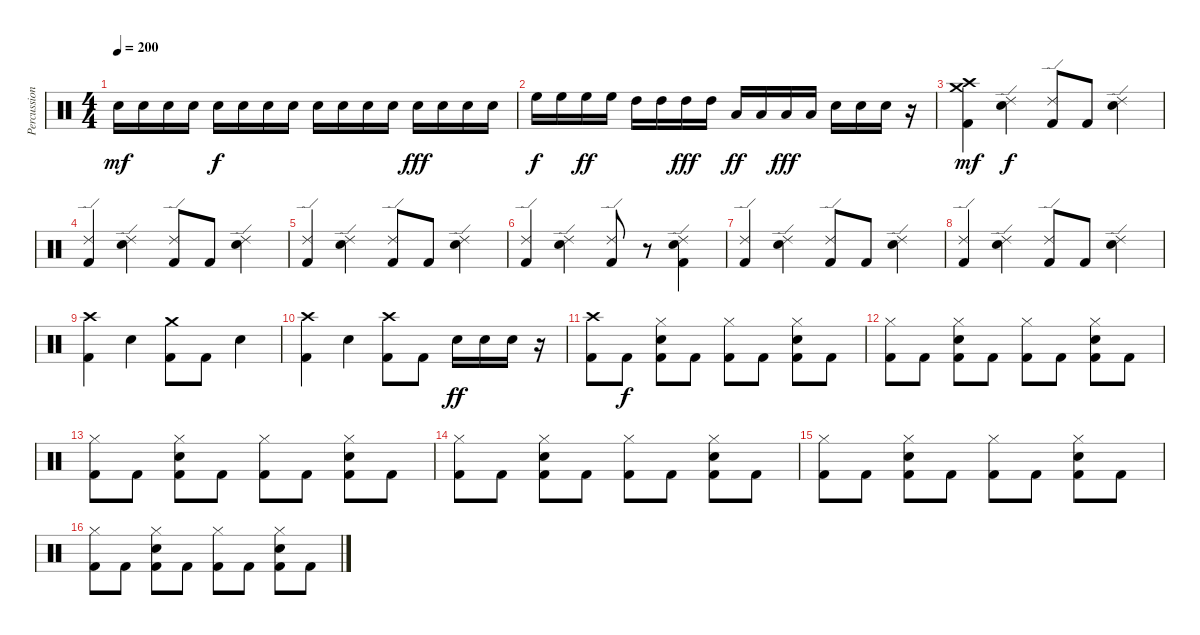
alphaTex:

\track ("Percussion" "Percussion") {instrument percussion}
\staff {score}
\articulation defaults
\ts (4 4)
\tempo 200
\clef neutral
\ks c "Snare (hit) 2".16{dy mf} "Snare (hit) 2".16 "Snare (hit) 2".16 "Snare (hit) 2".16 "Snare (hit) 2".16{dy f} "Snare (hit) 2".16 "Snare (hit) 2".16 "Snare (hit) 2".16 "Snare (hit) 2".16 "Snare (hit) 2".16 "Snare (hit) 2".16 "Snare (hit) 2".16 "Snare (hit) 2".16{dy fff} "Snare (hit) 2".16 "Snare (hit) 2".16 "Snare (hit) 2".16
|
"High Floor Tom (hit)".16{dy f} "High Floor Tom (hit)".16 "High Floor Tom (hit)".16{dy ff} "High Floor Tom (hit)".16 "High Tom (hit)".16 "High Tom (hit)".16 "High Tom (hit)".16{dy fff} "High Tom (hit)".16 "Low Tom (hit)".16{dy ff} "Low Tom (hit)".16 "Low Tom (hit)".16{dy fff} "Low Tom (hit)".16 "Snare (hit) 2".16 "Snare (hit) 2".16 "Snare (hit) 2".16 r.16 |
("Crash high (hit)" "Crash medium (hit)" "Kick (hit) 2").4{dy mf} ("Ride (edge) 2" "Snare (hit) 2").4{dy f} ("Ride (edge) 2" "Kick (hit) 2").8 "Kick (hit) 2".8 ("Ride (edge) 2" "Snare (hit) 2").4 |
("Ride (edge) 2" "Kick (hit) 2").4 ("Ride (edge) 2" "Snare (hit) 2").4 ("Ride (edge) 2" "Kick (hit) 2").8 "Kick (hit) 2".8 ("Ride (edge) 2" "Snare (hit) 2").4 |
("Ride (edge) 2" "Kick (hit) 2").4 ("Ride (edge) 2" "Snare (hit) 2").4 ("Ride (edge) 2" "Kick (hit) 2").8 "Kick (hit) 2".8 ("Ride (edge) 2" "Snare (hit) 2").4 |
("Ride (edge) 2" "Kick (hit) 2").4 ("Ride (edge) 2" "Snare (hit) 2").4 ("Ride (edge) 2" "Kick (hit) 2").8 r.8 ("Ride (edge) 2" "Snare (hit) 2" "Kick (hit) 2").4 |
("Ride (edge) 2" "Kick (hit) 2").4 ("Ride (edge) 2" "Snare (hit) 2").4 ("Ride (edge) 2" "Kick (hit) 2").8 "Kick (hit) 2".8 ("Ride (edge) 2" "Snare (hit) 2").4 |
("Ride (edge) 2" "Kick (hit) 2").4 ("Ride (edge) 2" "Snare (hit) 2").4 ("Ride (edge) 2" "Kick (hit) 2").8 "Kick (hit) 2".8 ("Ride (edge) 2" "Snare (hit) 2").4 |
("Crash high (hit)" "Kick (hit) 2").4 "Snare (hit) 2".4 ("Crash medium (hit)" "Kick (hit) 2").8 "Kick (hit) 2".8 "Snare (hit) 2".4 |
("Crash high (hit)" "Kick (hit) 2").4 "Snare (hit) 2".4 ("Crash high (hit)" "Kick (hit) 2").8 "Kick (hit) 2".8 "Snare (hit) 2".16{dy ff} "Snare (hit) 2".16 "Snare (hit) 2".16 r.16 |
("Crash high (hit)" "Kick (hit) 2").8 "Kick (hit) 2".8{dy f} ("Hi-Hat (closed)" "Snare (hit) 2" "Kick (hit) 2").8 "Kick (hit) 2".8 ("Hi-Hat (closed)" "Kick (hit) 2").8 "Kick (hit) 2".8 ("Hi-Hat (closed)" "Snare (hit) 2" "Kick (hit) 2").8 "Kick (hit) 2".8 |
("Hi-Hat (closed)" "Kick (hit) 2").8 "Kick (hit) 2".8 ("Hi-Hat (closed)" "Snare (hit) 2" "Kick (hit) 2").8 "Kick (hit) 2".8 ("Hi-Hat (closed)" "Kick (hit) 2").8 "Kick (hit) 2".8 ("Hi-Hat (closed)" "Snare (hit) 2" "Kick (hit) 2").8 "Kick (hit) 2".8 |
("Hi-Hat (closed)" "Kick (hit) 2").8 "Kick (hit) 2".8 ("Hi-Hat (closed)" "Snare (hit) 2" "Kick (hit) 2").8 "Kick (hit) 2".8 ("Hi-Hat (closed)" "Kick (hit) 2").8 "Kick (hit) 2".8 ("Hi-Hat (closed)" "Snare (hit) 2" "Kick (hit) 2").8 "Kick (hit) 2".8 |
("Hi-Hat (closed)" "Kick (hit) 2").8 "Kick (hit) 2".8 ("Hi-Hat (closed)" "Snare (hit) 2" "Kick (hit) 2").8 "Kick (hit) 2".8 ("Hi-Hat (closed)" "Kick (hit) 2").8 "Kick (hit) 2".8 ("Hi-Hat (closed)" "Snare (hit) 2" "Kick (hit) 2").8 "Kick (hit) 2".8 |
("Hi-Hat (closed)" "Kick (hit) 2").8 "Kick (hit) 2".8 ("Hi-Hat (closed)" "Snare (hit) 2" "Kick (hit) 2").8 "Kick (hit) 2".8 ("Hi-Hat (closed)" "Kick (hit) 2").8 "Kick (hit) 2".8 ("Hi-Hat (closed)" "Snare (hit) 2" "Kick (hit) 2").8 "Kick (hit) 2".8 |
("Hi-Hat (closed)" "Kick (hit) 2").8 "Kick (hit) 2".8 ("Hi-Hat (closed)" "Snare (hit) 2" "Kick (hit) 2").8 "Kick (hit) 2".8 ("Hi-Hat (closed)" "Kick (hit) 2").8 "Kick (hit) 2".8 ("Hi-Hat (closed)" "Snare (hit) 2" "Kick (hit) 2").8 "Kick (hit) 2".8
